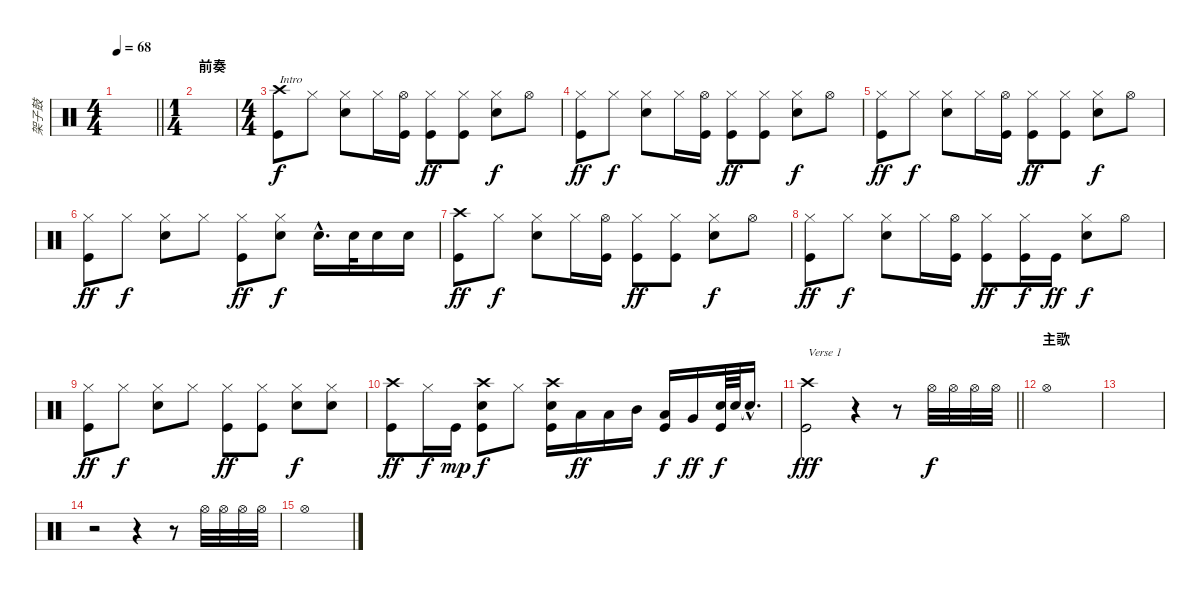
\track ("架子鼓" "架子鼓") {instrument percussion}
\staff {score}
\articulation defaults
\ts (4 4)
\tempo 68
\clef neutral
\barLineRight lightlight
\ks c
|
\ts (1 4)
\section ("" "前奏")
|
\ts (4 4)
("Crash high (hit)" "Kick (hit)").8{txt "Intro"} "Hi-Hat (closed)".8{dy f} ("Hi-Hat (closed)" "Snare (hit) 2").8 "Hi-Hat (closed)".16 ("Hi-Hat (open)" "Kick (hit)").16 ("Hi-Hat (closed)" "Kick (hit)").8{dy ff} ("Hi-Hat (closed)" "Kick (hit)").8 ("Hi-Hat (closed)" "Snare (hit) 2").8{dy f} "Hi-Hat (open)".8 |
("Hi-Hat (closed)" "Kick (hit)").8{dy ff} "Hi-Hat (closed)".8{dy f} ("Hi-Hat (closed)" "Snare (hit) 2").8 "Hi-Hat (closed)".16 ("Hi-Hat (open)" "Kick (hit)").16 ("Hi-Hat (closed)" "Kick (hit)").8{dy ff} ("Hi-Hat (closed)" "Kick (hit)").8 ("Hi-Hat (closed)" "Snare (hit) 2").8{dy f} "Hi-Hat (open)".8 |
("Hi-Hat (closed)" "Kick (hit)").8{dy ff} "Hi-Hat (closed)".8{dy f} ("Hi-Hat (closed)" "Snare (hit) 2").8 "Hi-Hat (closed)".16 ("Hi-Hat (open)" "Kick (hit)").16 ("Hi-Hat (closed)" "Kick (hit)").8{dy ff} ("Hi-Hat (closed)" "Kick (hit)").8 ("Hi-Hat (closed)" "Snare (hit) 2").8{dy f} "Hi-Hat (open)".8 |
("Hi-Hat (closed)" "Kick (hit)").8{dy ff} "Hi-Hat (closed)".8{dy f} ("Hi-Hat (closed)" "Snare (hit) 2").8 "Hi-Hat (closed)".8 ("Hi-Hat (closed)" "Kick (hit)").8{dy ff} ("Hi-Hat (closed)" "Snare (hit) 2").8{dy f} "Snare (hit) 2"{hac}.16{d} "Snare (hit) 2".32 "Snare (hit) 2".16 "Snare (hit) 2".16 |
("Crash high (hit)" "Kick (hit)").8{dy ff} "Hi-Hat (closed)".8{dy f} ("Hi-Hat (closed)" "Snare (hit) 2").8 "Hi-Hat (closed)".16 ("Hi-Hat (open)" "Kick (hit)").16 ("Hi-Hat (closed)" "Kick (hit)").8{dy ff} ("Hi-Hat (closed)" "Kick (hit)").8 ("Hi-Hat (closed)" "Snare (hit) 2").8{dy f} "Hi-Hat (open)".8 |
("Hi-Hat (closed)" "Kick (hit)").8{dy ff} "Hi-Hat (closed)".8{dy f} ("Hi-Hat (closed)" "Snare (hit) 2").8 "Hi-Hat (closed)".16 ("Hi-Hat (open)" "Kick (hit)").16 ("Hi-Hat (closed)" "Kick (hit)").8{dy ff} ("Hi-Hat (closed)" "Kick (hit)").16{dy f} "Kick (hit)".16{dy ff} ("Hi-Hat (closed)" "Snare (hit) 2").8{dy f} "Hi-Hat (open)".8 |
("Hi-Hat (closed)" "Kick (hit)").8{dy ff} "Hi-Hat (closed)".8{dy f} ("Hi-Hat (closed)" "Snare (hit) 2").8 "Hi-Hat (closed)".8 ("Hi-Hat (closed)" "Kick (hit)").8{dy ff} ("Hi-Hat (closed)" "Kick (hit)").8 ("Hi-Hat (closed)" "Snare (hit) 2").8{dy f} ("Hi-Hat (closed)" "Snare (hit) 2").8 |
("Crash high (hit)" "Kick (hit)").8{dy ff} "Hi-Hat (closed)".16{dy f} "Kick (hit)".16{dy mp} ("Crash high (hit)" "Snare (hit) 2" "Kick (hit)").8{dy f} "Hi-Hat (closed)".8 ("Crash high (hit)" "Snare (hit) 2" "Kick (hit)").16 "Low Floor Tom (hit)".16{dy ff} "Low Tom (hit)".16 "Mid Tom (hit)".16 ("Low Tom (hit)" "Kick (hit)").16{dy f} "Very Low Tom (hit)".16{dy ff} ("Snare (hit) 2" "Kick (hit)").64{dy f} "Snare (hit) 2".64 "Snare (hit)"{hac t}.16{d} |
\barLineRight lightlight
("Crash high (hit)" "Kick (hit)").2{txt "Verse 1" dy fff} r.4 r.8 "Hi-Hat (open)".32{dy f} "Hi-Hat (open)".32 "Hi-Hat (open)".32 "Hi-Hat (open)".32 |
\section ("" "主歌")
"Hi-Hat (open)".1 |
|
r.2 r.4 r.8 "Hi-Hat (open)".32 "Hi-Hat (open)".32 "Hi-Hat (open)".32 "Hi-Hat (open)".32 |
"Hi-Hat (open)".1
